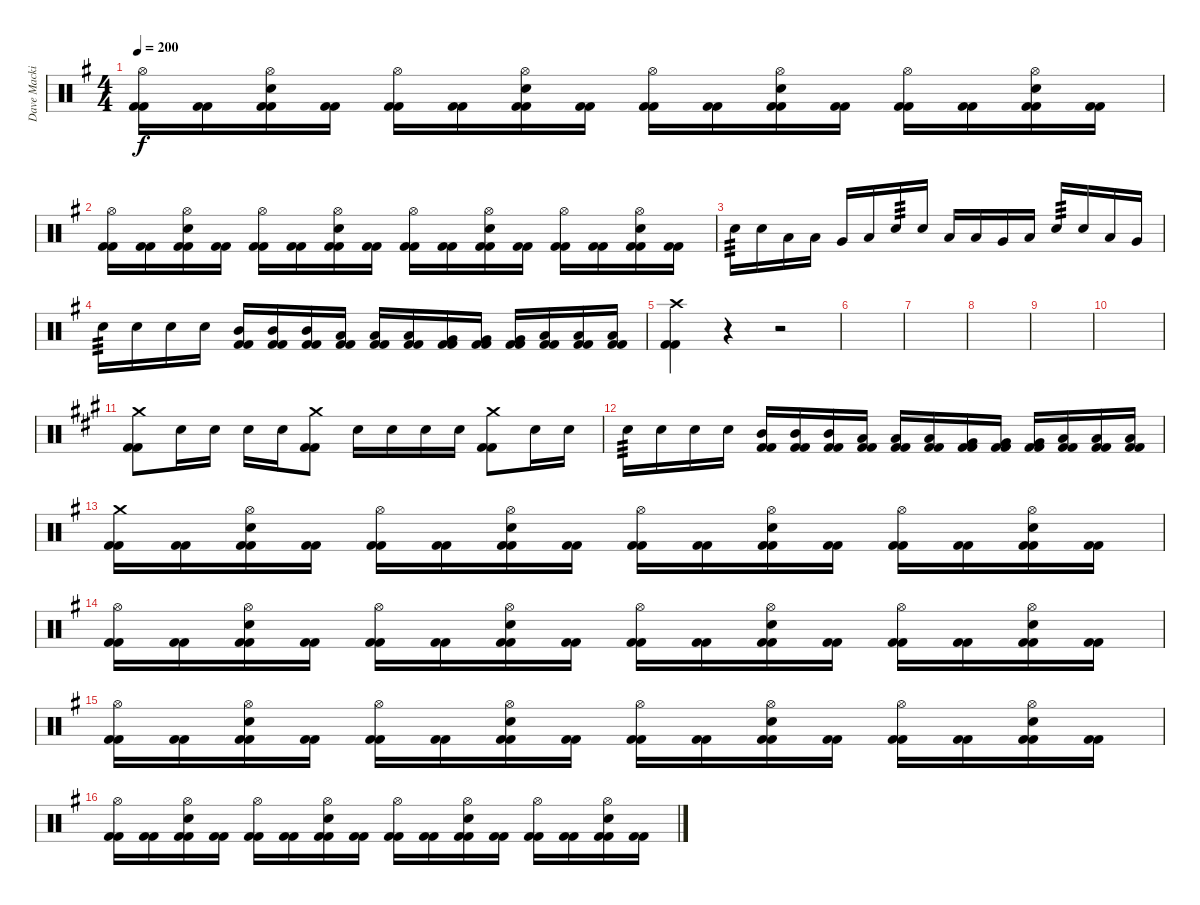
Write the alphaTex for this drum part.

\track ("Dave Mackintosh" "Dave Macki") {instrument percussion}
\staff {score}
\articulation defaults
\ts (4 4)
\tempo 200
\clef neutral
\ks g
("Hi-Hat (open)" "Kick (hit) 2" "Kick (hit) 2").16{dy f} ("Kick (hit) 2" "Kick (hit) 2").16 ("Hi-Hat (open)" "Electric Snare (hit)" "Kick (hit) 2" "Kick (hit) 2").16 ("Kick (hit) 2" "Kick (hit) 2").16 ("Hi-Hat (open)" "Kick (hit) 2" "Kick (hit) 2").16 ("Kick (hit) 2" "Kick (hit) 2").16 ("Hi-Hat (open)" "Electric Snare (hit)" "Kick (hit) 2" "Kick (hit) 2").16 ("Kick (hit) 2" "Kick (hit) 2").16 ("Hi-Hat (open)" "Kick (hit) 2" "Kick (hit) 2").16 ("Kick (hit) 2" "Kick (hit) 2").16 ("Hi-Hat (open)" "Electric Snare (hit)" "Kick (hit) 2" "Kick (hit) 2").16 ("Kick (hit) 2" "Kick (hit) 2").16 ("Hi-Hat (open)" "Kick (hit) 2" "Kick (hit) 2").16 ("Kick (hit) 2" "Kick (hit) 2").16 ("Hi-Hat (open)" "Electric Snare (hit)" "Kick (hit) 2" "Kick (hit) 2").16 ("Kick (hit) 2" "Kick (hit) 2").16 |
("Hi-Hat (open)" "Kick (hit) 2" "Kick (hit) 2").16 ("Kick (hit) 2" "Kick (hit) 2").16 ("Hi-Hat (open)" "Electric Snare (hit)" "Kick (hit) 2" "Kick (hit) 2").16 ("Kick (hit) 2" "Kick (hit) 2").16 ("Hi-Hat (open)" "Kick (hit) 2" "Kick (hit) 2").16 ("Kick (hit) 2" "Kick (hit) 2").16 ("Hi-Hat (open)" "Electric Snare (hit)" "Kick (hit) 2" "Kick (hit) 2").16 ("Kick (hit) 2" "Kick (hit) 2").16 ("Hi-Hat (open)" "Kick (hit) 2" "Kick (hit) 2").16 ("Kick (hit) 2" "Kick (hit) 2").16 ("Hi-Hat (open)" "Electric Snare (hit)" "Kick (hit) 2" "Kick (hit) 2").16 ("Kick (hit) 2" "Kick (hit) 2").16 ("Hi-Hat (open)" "Kick (hit) 2" "Kick (hit) 2").16 ("Kick (hit) 2" "Kick (hit) 2").16 ("Hi-Hat (open)" "Electric Snare (hit)" "Kick (hit) 2" "Kick (hit) 2").16 ("Kick (hit) 2" "Kick (hit) 2").16 |
"Electric Snare (hit)".16{tp 3} "Electric Snare (hit)".16 "Low Tom (hit)".16 "Low Tom (hit)".16 "Very Low Tom (hit)".16 "Low Floor Tom (hit)".16 "Electric Snare (hit)".16{tp 3} "Electric Snare (hit)".16 "Low Tom (hit)".16 "Low Tom (hit)".16 "Very Low Tom (hit)".16 "Low Floor Tom (hit)".16 "Electric Snare (hit)".16{tp 3} "Electric Snare (hit)".16 "Low Tom (hit)".16 "Very Low Tom (hit)".16 |
"Electric Snare (hit)".16{tp 3} "Electric Snare (hit)".16 "Electric Snare (hit)".16 "Electric Snare (hit)".16 ("Mid Tom (hit)" "Kick (hit) 2" "Kick (hit) 2").16 ("Mid Tom (hit)" "Kick (hit) 2" "Kick (hit) 2").16 ("Mid Tom (hit)" "Kick (hit) 2" "Kick (hit) 2").16 ("Low Tom (hit)" "Kick (hit) 2" "Kick (hit) 2").16 ("Low Tom (hit)" "Kick (hit) 2" "Kick (hit) 2").16 ("Low Tom (hit)" "Kick (hit) 2" "Kick (hit) 2").16 ("Very Low Tom (hit)" "Kick (hit) 2" "Kick (hit) 2").16 ("Very Low Tom (hit)" "Kick (hit) 2" "Kick (hit) 2").16 ("Very Low Tom (hit)" "Kick (hit) 2" "Kick (hit) 2").16 ("Low Floor Tom (hit)" "Kick (hit) 2" "Kick (hit) 2").16 ("Low Floor Tom (hit)" "Kick (hit) 2" "Kick (hit) 2").16 ("Low Floor Tom (hit)" "Kick (hit) 2" "Kick (hit) 2").16 |
("Crash high (hit)" "Kick (hit) 2" "Kick (hit) 2").4 r.4{volume 0} r.2 |
|
|
|
|
|
\ks a
("Crash medium (hit)" "Kick (hit) 2" "Kick (hit) 2").8{volume 16} "Electric Snare (hit)".16 "Electric Snare (hit)".16 "Electric Snare (hit)".16 "Electric Snare (hit)".16 ("Crash medium (hit)" "Kick (hit) 2" "Kick (hit) 2").8 "Electric Snare (hit)".16 "Electric Snare (hit)".16 "Electric Snare (hit)".16 "Electric Snare (hit)".16 ("Crash medium (hit)" "Kick (hit) 2" "Kick (hit) 2").8 "Electric Snare (hit)".16 "Electric Snare (hit)".16 |
"Electric Snare (hit)".16{tp 3} "Electric Snare (hit)".16 "Electric Snare (hit)".16 "Electric Snare (hit)".16 ("Mid Tom (hit)" "Kick (hit) 2" "Kick (hit) 2").16 ("Mid Tom (hit)" "Kick (hit) 2" "Kick (hit) 2").16 ("Mid Tom (hit)" "Kick (hit) 2" "Kick (hit) 2").16 ("Low Tom (hit)" "Kick (hit) 2" "Kick (hit) 2").16 ("Low Tom (hit)" "Kick (hit) 2" "Kick (hit) 2").16 ("Low Tom (hit)" "Kick (hit) 2" "Kick (hit) 2").16 ("Very Low Tom (hit)" "Kick (hit) 2" "Kick (hit) 2").16 ("Very Low Tom (hit)" "Kick (hit) 2" "Kick (hit) 2").16 ("Very Low Tom (hit)" "Kick (hit) 2" "Kick (hit) 2").16 ("Low Floor Tom (hit)" "Kick (hit) 2" "Kick (hit) 2").16 ("Low Floor Tom (hit)" "Kick (hit) 2" "Kick (hit) 2").16 ("Low Floor Tom (hit)" "Kick (hit) 2" "Kick (hit) 2").16 |
\ks g
("Crash medium (hit)" "Kick (hit) 2" "Kick (hit) 2").16 ("Kick (hit) 2" "Kick (hit) 2").16 ("Hi-Hat (open)" "Electric Snare (hit)" "Kick (hit) 2" "Kick (hit) 2").16 ("Kick (hit) 2" "Kick (hit) 2").16 ("Hi-Hat (open)" "Kick (hit) 2" "Kick (hit) 2").16 ("Kick (hit) 2" "Kick (hit) 2").16 ("Hi-Hat (open)" "Electric Snare (hit)" "Kick (hit) 2" "Kick (hit) 2").16 ("Kick (hit) 2" "Kick (hit) 2").16 ("Hi-Hat (open)" "Kick (hit) 2" "Kick (hit) 2").16 ("Kick (hit) 2" "Kick (hit) 2").16 ("Hi-Hat (open)" "Electric Snare (hit)" "Kick (hit) 2" "Kick (hit) 2").16 ("Kick (hit) 2" "Kick (hit) 2").16 ("Hi-Hat (open)" "Kick (hit) 2" "Kick (hit) 2").16 ("Kick (hit) 2" "Kick (hit) 2").16 ("Hi-Hat (open)" "Electric Snare (hit)" "Kick (hit) 2" "Kick (hit) 2").16 ("Kick (hit) 2" "Kick (hit) 2").16 |
("Hi-Hat (open)" "Kick (hit) 2" "Kick (hit) 2").16 ("Kick (hit) 2" "Kick (hit) 2").16 ("Hi-Hat (open)" "Electric Snare (hit)" "Kick (hit) 2" "Kick (hit) 2").16 ("Kick (hit) 2" "Kick (hit) 2").16 ("Hi-Hat (open)" "Kick (hit) 2" "Kick (hit) 2").16 ("Kick (hit) 2" "Kick (hit) 2").16 ("Hi-Hat (open)" "Electric Snare (hit)" "Kick (hit) 2" "Kick (hit) 2").16 ("Kick (hit) 2" "Kick (hit) 2").16 ("Hi-Hat (open)" "Kick (hit) 2" "Kick (hit) 2").16 ("Kick (hit) 2" "Kick (hit) 2").16 ("Hi-Hat (open)" "Electric Snare (hit)" "Kick (hit) 2" "Kick (hit) 2").16 ("Kick (hit) 2" "Kick (hit) 2").16 ("Hi-Hat (open)" "Kick (hit) 2" "Kick (hit) 2").16 ("Kick (hit) 2" "Kick (hit) 2").16 ("Hi-Hat (open)" "Electric Snare (hit)" "Kick (hit) 2" "Kick (hit) 2").16 ("Kick (hit) 2" "Kick (hit) 2").16 |
("Hi-Hat (open)" "Kick (hit) 2" "Kick (hit) 2").16 ("Kick (hit) 2" "Kick (hit) 2").16 ("Hi-Hat (open)" "Electric Snare (hit)" "Kick (hit) 2" "Kick (hit) 2").16 ("Kick (hit) 2" "Kick (hit) 2").16 ("Hi-Hat (open)" "Kick (hit) 2" "Kick (hit) 2").16 ("Kick (hit) 2" "Kick (hit) 2").16 ("Hi-Hat (open)" "Electric Snare (hit)" "Kick (hit) 2" "Kick (hit) 2").16 ("Kick (hit) 2" "Kick (hit) 2").16 ("Hi-Hat (open)" "Kick (hit) 2" "Kick (hit) 2").16 ("Kick (hit) 2" "Kick (hit) 2").16 ("Hi-Hat (open)" "Electric Snare (hit)" "Kick (hit) 2" "Kick (hit) 2").16 ("Kick (hit) 2" "Kick (hit) 2").16 ("Hi-Hat (open)" "Kick (hit) 2" "Kick (hit) 2").16 ("Kick (hit) 2" "Kick (hit) 2").16 ("Hi-Hat (open)" "Electric Snare (hit)" "Kick (hit) 2" "Kick (hit) 2").16 ("Kick (hit) 2" "Kick (hit) 2").16 |
("Hi-Hat (open)" "Kick (hit) 2" "Kick (hit) 2").16 ("Kick (hit) 2" "Kick (hit) 2").16 ("Hi-Hat (open)" "Electric Snare (hit)" "Kick (hit) 2" "Kick (hit) 2").16 ("Kick (hit) 2" "Kick (hit) 2").16 ("Hi-Hat (open)" "Kick (hit) 2" "Kick (hit) 2").16 ("Kick (hit) 2" "Kick (hit) 2").16 ("Hi-Hat (open)" "Electric Snare (hit)" "Kick (hit) 2" "Kick (hit) 2").16 ("Kick (hit) 2" "Kick (hit) 2").16 ("Hi-Hat (open)" "Kick (hit) 2" "Kick (hit) 2").16 ("Kick (hit) 2" "Kick (hit) 2").16 ("Hi-Hat (open)" "Electric Snare (hit)" "Kick (hit) 2" "Kick (hit) 2").16 ("Kick (hit) 2" "Kick (hit) 2").16 ("Hi-Hat (open)" "Kick (hit) 2" "Kick (hit) 2").16 ("Kick (hit) 2" "Kick (hit) 2").16 ("Hi-Hat (open)" "Electric Snare (hit)" "Kick (hit) 2" "Kick (hit) 2").16 ("Kick (hit) 2" "Kick (hit) 2").16
